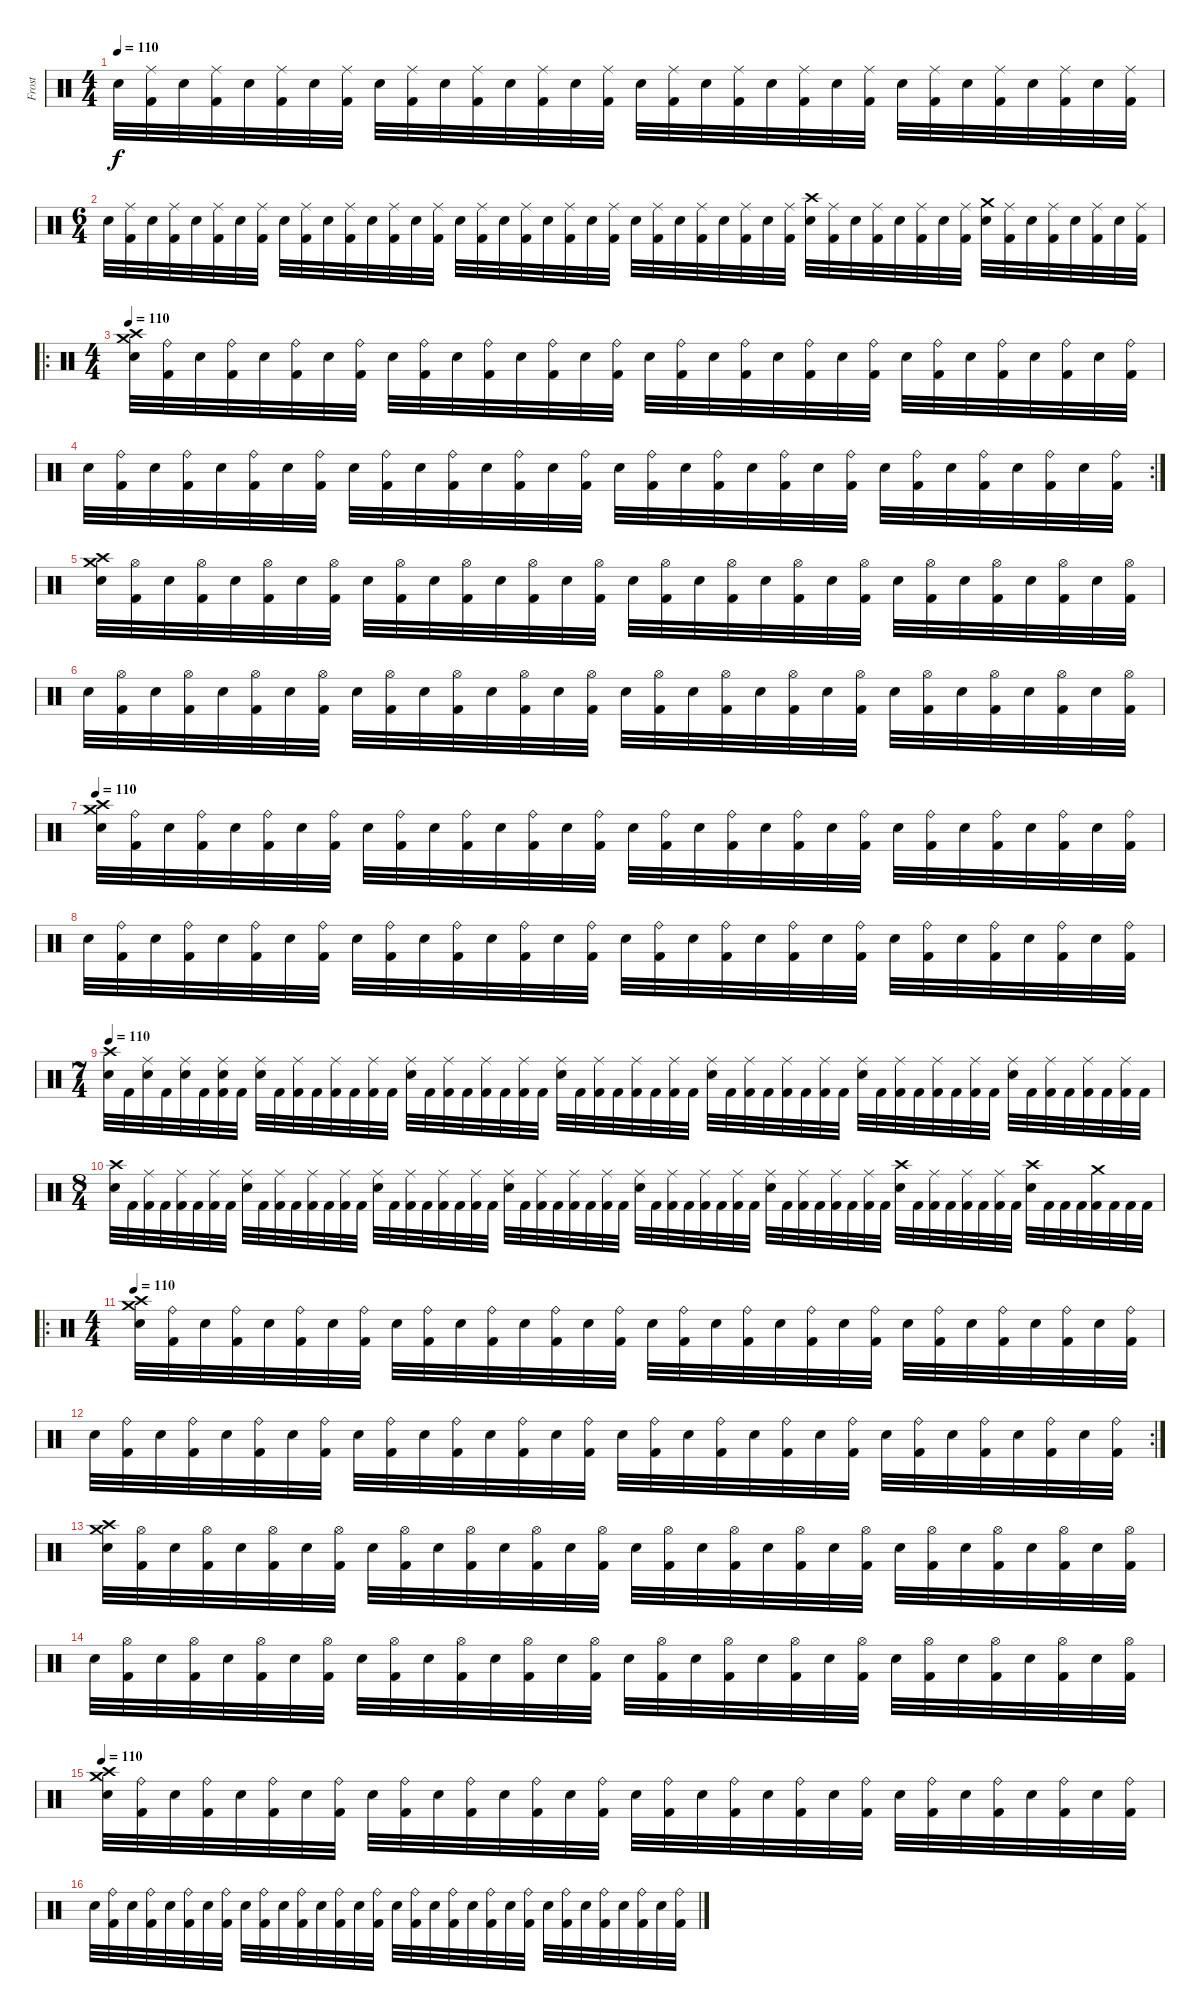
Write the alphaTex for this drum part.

\track ("Frost" "Frost") {instrument percussion}
\staff {score}
\articulation defaults
\ts (4 4)
\tempo 110
\clef neutral
\ks c "Snare (hit) 2".32{dy f}
("Ride (middle)" "Kick (hit) 2").32 "Snare (hit) 2".32 ("Ride (middle)" "Kick (hit) 2").32 "Snare (hit) 2".32 ("Ride (middle)" "Kick (hit) 2").32 "Snare (hit) 2".32 ("Ride (middle)" "Kick (hit) 2").32 "Snare (hit) 2".32 ("Ride (middle)" "Kick (hit) 2").32 "Snare (hit) 2".32 ("Ride (middle)" "Kick (hit) 2").32 "Snare (hit) 2".32 ("Ride (middle)" "Kick (hit) 2").32 "Snare (hit) 2".32 ("Ride (middle)" "Kick (hit) 2").32 "Snare (hit) 2".32 ("Ride (middle)" "Kick (hit) 2").32 "Snare (hit) 2".32 ("Ride (middle)" "Kick (hit) 2").32 "Snare (hit) 2".32 ("Ride (middle)" "Kick (hit) 2").32 "Snare (hit) 2".32 ("Ride (middle)" "Kick (hit) 2").32 "Snare (hit) 2".32 ("Ride (middle)" "Kick (hit) 2").32 "Snare (hit) 2".32 ("Ride (middle)" "Kick (hit) 2").32 "Snare (hit) 2".32 ("Ride (middle)" "Kick (hit) 2").32 "Snare (hit) 2".32 ("Ride (middle)" "Kick (hit) 2").32 |
\ts (6 4)
"Snare (hit) 2".32 ("Ride (middle)" "Kick (hit) 2").32 "Snare (hit) 2".32 ("Ride (middle)" "Kick (hit) 2").32 "Snare (hit) 2".32 ("Ride (middle)" "Kick (hit) 2").32 "Snare (hit) 2".32 ("Ride (middle)" "Kick (hit) 2").32 "Snare (hit) 2".32 ("Ride (middle)" "Kick (hit) 2").32 "Snare (hit) 2".32 ("Ride (middle)" "Kick (hit) 2").32 "Snare (hit) 2".32 ("Ride (middle)" "Kick (hit) 2").32 "Snare (hit) 2".32 ("Ride (middle)" "Kick (hit) 2").32 "Snare (hit) 2".32 ("Ride (middle)" "Kick (hit) 2").32 "Snare (hit) 2".32 ("Ride (middle)" "Kick (hit) 2").32 "Snare (hit) 2".32 ("Ride (middle)" "Kick (hit) 2").32 "Snare (hit) 2".32 ("Ride (middle)" "Kick (hit) 2").32 "Snare (hit) 2".32 ("Ride (middle)" "Kick (hit) 2").32 "Snare (hit) 2".32 ("Ride (middle)" "Kick (hit) 2").32 "Snare (hit) 2".32 ("Ride (middle)" "Kick (hit) 2").32 "Snare (hit) 2".32 ("Ride (middle)" "Kick (hit) 2").32 ("Crash high (hit)" "Snare (hit) 2").32 ("Ride (middle)" "Kick (hit) 2").32 "Snare (hit) 2".32 ("Ride (middle)" "Kick (hit) 2").32 "Snare (hit) 2".32 ("Ride (middle)" "Kick (hit) 2").32 "Snare (hit) 2".32 ("Ride (middle)" "Kick (hit) 2").32 ("Crash medium (hit)" "Snare (hit) 2").32 ("Ride (middle)" "Kick (hit) 2").32 "Snare (hit) 2".32 ("Ride (middle)" "Kick (hit) 2").32 "Snare (hit) 2".32 ("Ride (middle)" "Kick (hit) 2").32 "Snare (hit) 2".32 ("Ride (middle)" "Kick (hit) 2").32 |
\ro
\ts (4 4)
\tempo 110
("Crash high (hit)" "Crash medium (hit)" "Snare (hit) 2").32 ("Ride (bell)" "Kick (hit) 2").32 "Snare (hit) 2".32 ("Ride (bell)" "Kick (hit) 2").32 "Snare (hit) 2".32 ("Ride (bell)" "Kick (hit) 2").32 "Snare (hit) 2".32 ("Ride (bell)" "Kick (hit) 2").32 "Snare (hit) 2".32 ("Ride (bell)" "Kick (hit) 2").32 "Snare (hit) 2".32 ("Ride (bell)" "Kick (hit) 2").32 "Snare (hit) 2".32 ("Ride (bell)" "Kick (hit) 2").32 "Snare (hit) 2".32 ("Ride (bell)" "Kick (hit) 2").32 "Snare (hit) 2".32 ("Ride (bell)" "Kick (hit) 2").32 "Snare (hit) 2".32 ("Ride (bell)" "Kick (hit) 2").32 "Snare (hit) 2".32 ("Ride (bell)" "Kick (hit) 2").32 "Snare (hit) 2".32 ("Ride (bell)" "Kick (hit) 2").32 "Snare (hit) 2".32 ("Ride (bell)" "Kick (hit) 2").32 "Snare (hit) 2".32 ("Ride (bell)" "Kick (hit) 2").32 "Snare (hit) 2".32 ("Ride (bell)" "Kick (hit) 2").32 "Snare (hit) 2".32 ("Ride (bell)" "Kick (hit) 2").32 |
\rc 2 "Snare (hit) 2".32
("Ride (bell)" "Kick (hit) 2").32 "Snare (hit) 2".32 ("Ride (bell)" "Kick (hit) 2").32 "Snare (hit) 2".32 ("Ride (bell)" "Kick (hit) 2").32 "Snare (hit) 2".32 ("Ride (bell)" "Kick (hit) 2").32 "Snare (hit) 2".32 ("Ride (bell)" "Kick (hit) 2").32 "Snare (hit) 2".32 ("Ride (bell)" "Kick (hit) 2").32 "Snare (hit) 2".32 ("Ride (bell)" "Kick (hit) 2").32 "Snare (hit) 2".32 ("Ride (bell)" "Kick (hit) 2").32 "Snare (hit) 2".32 ("Ride (bell)" "Kick (hit) 2").32 "Snare (hit) 2".32 ("Ride (bell)" "Kick (hit) 2").32 "Snare (hit) 2".32 ("Ride (bell)" "Kick (hit) 2").32 "Snare (hit) 2".32 ("Ride (bell)" "Kick (hit) 2").32 "Snare (hit) 2".32 ("Ride (bell)" "Kick (hit) 2").32 "Snare (hit) 2".32 ("Ride (bell)" "Kick (hit) 2").32 "Snare (hit) 2".32 ("Ride (bell)" "Kick (hit) 2").32 "Snare (hit) 2".32 ("Ride (bell)" "Kick (hit) 2").32 |
("Crash high (hit)" "Crash medium (hit)" "Snare (hit) 2").32 ("Hi-Hat (open)" "Kick (hit) 2").32 "Snare (hit) 2".32 ("Hi-Hat (open)" "Kick (hit) 2").32 "Snare (hit) 2".32 ("Hi-Hat (open)" "Kick (hit) 2").32 "Snare (hit) 2".32 ("Hi-Hat (open)" "Kick (hit) 2").32 "Snare (hit) 2".32 ("Hi-Hat (open)" "Kick (hit) 2").32 "Snare (hit) 2".32 ("Hi-Hat (open)" "Kick (hit) 2").32 "Snare (hit) 2".32 ("Hi-Hat (open)" "Kick (hit) 2").32 "Snare (hit) 2".32 ("Hi-Hat (open)" "Kick (hit) 2").32 "Snare (hit) 2".32 ("Hi-Hat (open)" "Kick (hit) 2").32 "Snare (hit) 2".32 ("Hi-Hat (open)" "Kick (hit) 2").32 "Snare (hit) 2".32 ("Hi-Hat (open)" "Kick (hit) 2").32 "Snare (hit) 2".32 ("Hi-Hat (open)" "Kick (hit) 2").32 "Snare (hit) 2".32 ("Hi-Hat (open)" "Kick (hit) 2").32 "Snare (hit) 2".32 ("Hi-Hat (open)" "Kick (hit) 2").32 "Snare (hit) 2".32 ("Hi-Hat (open)" "Kick (hit) 2").32 "Snare (hit) 2".32 ("Hi-Hat (open)" "Kick (hit) 2").32 |
"Snare (hit) 2".32 ("Hi-Hat (open)" "Kick (hit) 2").32 "Snare (hit) 2".32 ("Hi-Hat (open)" "Kick (hit) 2").32 "Snare (hit) 2".32 ("Hi-Hat (open)" "Kick (hit) 2").32 "Snare (hit) 2".32 ("Hi-Hat (open)" "Kick (hit) 2").32 "Snare (hit) 2".32 ("Hi-Hat (open)" "Kick (hit) 2").32 "Snare (hit) 2".32 ("Hi-Hat (open)" "Kick (hit) 2").32 "Snare (hit) 2".32 ("Hi-Hat (open)" "Kick (hit) 2").32 "Snare (hit) 2".32 ("Hi-Hat (open)" "Kick (hit) 2").32 "Snare (hit) 2".32 ("Hi-Hat (open)" "Kick (hit) 2").32 "Snare (hit) 2".32 ("Hi-Hat (open)" "Kick (hit) 2").32 "Snare (hit) 2".32 ("Hi-Hat (open)" "Kick (hit) 2").32 "Snare (hit) 2".32 ("Hi-Hat (open)" "Kick (hit) 2").32 "Snare (hit) 2".32 ("Hi-Hat (open)" "Kick (hit) 2").32 "Snare (hit) 2".32 ("Hi-Hat (open)" "Kick (hit) 2").32 "Snare (hit) 2".32 ("Hi-Hat (open)" "Kick (hit) 2").32 "Snare (hit) 2".32 ("Hi-Hat (open)" "Kick (hit) 2").32 |
\tempo 110
("Crash high (hit)" "Crash medium (hit)" "Snare (hit) 2").32 ("Ride (bell)" "Kick (hit) 2").32 "Snare (hit) 2".32 ("Ride (bell)" "Kick (hit) 2").32 "Snare (hit) 2".32 ("Ride (bell)" "Kick (hit) 2").32 "Snare (hit) 2".32 ("Ride (bell)" "Kick (hit) 2").32 "Snare (hit) 2".32 ("Ride (bell)" "Kick (hit) 2").32 "Snare (hit) 2".32 ("Ride (bell)" "Kick (hit) 2").32 "Snare (hit) 2".32 ("Ride (bell)" "Kick (hit) 2").32 "Snare (hit) 2".32 ("Ride (bell)" "Kick (hit) 2").32 "Snare (hit) 2".32 ("Ride (bell)" "Kick (hit) 2").32 "Snare (hit) 2".32 ("Ride (bell)" "Kick (hit) 2").32 "Snare (hit) 2".32 ("Ride (bell)" "Kick (hit) 2").32 "Snare (hit) 2".32 ("Ride (bell)" "Kick (hit) 2").32 "Snare (hit) 2".32 ("Ride (bell)" "Kick (hit) 2").32 "Snare (hit) 2".32 ("Ride (bell)" "Kick (hit) 2").32 "Snare (hit) 2".32 ("Ride (bell)" "Kick (hit) 2").32 "Snare (hit) 2".32 ("Ride (bell)" "Kick (hit) 2").32 |
"Snare (hit) 2".32 ("Ride (bell)" "Kick (hit) 2").32 "Snare (hit) 2".32 ("Ride (bell)" "Kick (hit) 2").32 "Snare (hit) 2".32 ("Ride (bell)" "Kick (hit) 2").32 "Snare (hit) 2".32 ("Ride (bell)" "Kick (hit) 2").32 "Snare (hit) 2".32 ("Ride (bell)" "Kick (hit) 2").32 "Snare (hit) 2".32 ("Ride (bell)" "Kick (hit) 2").32 "Snare (hit) 2".32 ("Ride (bell)" "Kick (hit) 2").32 "Snare (hit) 2".32 ("Ride (bell)" "Kick (hit) 2").32 "Snare (hit) 2".32 ("Ride (bell)" "Kick (hit) 2").32 "Snare (hit) 2".32 ("Ride (bell)" "Kick (hit) 2").32 "Snare (hit) 2".32 ("Ride (bell)" "Kick (hit) 2").32 "Snare (hit) 2".32 ("Ride (bell)" "Kick (hit) 2").32 "Snare (hit) 2".32 ("Ride (bell)" "Kick (hit) 2").32 "Snare (hit) 2".32 ("Ride (bell)" "Kick (hit) 2").32 "Snare (hit) 2".32 ("Ride (bell)" "Kick (hit) 2").32 "Snare (hit) 2".32 ("Ride (bell)" "Kick (hit) 2").32 |
\ts (7 4)
\tempo 110
("Crash high (hit)" "Snare (hit) 2").32 "Kick (hit) 2".32 ("Ride (middle)" "Snare (hit) 2").32 "Kick (hit) 2".32 ("Ride (middle)" "Snare (hit) 2").32 "Kick (hit) 2".32 ("Ride (middle)" "Snare (hit) 2" "Kick (hit) 2").32 "Kick (hit) 2".32 ("Ride (middle)" "Snare (hit) 2").32 "Kick (hit) 2".32 ("Ride (middle)" "Kick (hit) 2").32 "Kick (hit) 2".32 ("Ride (middle)" "Kick (hit) 2").32 "Kick (hit) 2".32 ("Ride (middle)" "Kick (hit) 2").32 "Kick (hit) 2".32 ("Ride (middle)" "Snare (hit) 2").32 "Kick (hit) 2".32 ("Ride (middle)" "Kick (hit) 2").32 "Kick (hit) 2".32 ("Ride (middle)" "Kick (hit) 2").32 "Kick (hit) 2".32 ("Ride (middle)" "Kick (hit) 2").32 "Kick (hit) 2".32 ("Ride (middle)" "Snare (hit) 2").32 "Kick (hit) 2".32 ("Ride (middle)" "Kick (hit) 2").32 "Kick (hit) 2".32 ("Ride (middle)" "Kick (hit) 2").32 "Kick (hit) 2".32 ("Ride (middle)" "Kick (hit) 2").32 "Kick (hit) 2".32 ("Ride (middle)" "Snare (hit) 2").32 "Kick (hit) 2".32 ("Ride (middle)" "Kick (hit) 2").32 "Kick (hit) 2".32 ("Ride (middle)" "Kick (hit) 2").32 "Kick (hit) 2".32 ("Ride (middle)" "Kick (hit) 2").32 "Kick (hit) 2".32 ("Ride (middle)" "Snare (hit) 2").32 "Kick (hit) 2".32 ("Ride (middle)" "Kick (hit) 2").32 "Kick (hit) 2".32 ("Ride (middle)" "Kick (hit) 2").32 "Kick (hit) 2".32 ("Ride (middle)" "Kick (hit) 2").32 "Kick (hit) 2".32 ("Ride (middle)" "Snare (hit) 2").32 "Kick (hit) 2".32 ("Ride (middle)" "Kick (hit) 2").32 "Kick (hit) 2".32 ("Ride (middle)" "Kick (hit) 2").32 "Kick (hit) 2".32 ("Ride (middle)" "Kick (hit) 2").32 "Kick (hit) 2".32 |
\ts (8 4)
("Crash high (hit)" "Snare (hit) 2").32 "Kick (hit) 2".32 ("Ride (middle)" "Kick (hit) 2").32 "Kick (hit) 2".32 ("Ride (middle)" "Kick (hit) 2").32 "Kick (hit) 2".32 ("Ride (middle)" "Kick (hit) 2").32 "Kick (hit) 2".32 ("Ride (middle)" "Snare (hit) 2").32 "Kick (hit) 2".32 ("Ride (middle)" "Kick (hit) 2").32 "Kick (hit) 2".32 ("Ride (middle)" "Kick (hit) 2").32 "Kick (hit) 2".32 ("Ride (middle)" "Kick (hit) 2").32 "Kick (hit) 2".32 ("Ride (middle)" "Snare (hit) 2").32 "Kick (hit) 2".32 ("Ride (middle)" "Kick (hit) 2").32 "Kick (hit) 2".32 ("Ride (middle)" "Kick (hit) 2").32 "Kick (hit) 2".32 ("Ride (middle)" "Kick (hit) 2").32 "Kick (hit) 2".32 ("Ride (middle)" "Snare (hit) 2").32 "Kick (hit) 2".32 ("Ride (middle)" "Kick (hit) 2").32 "Kick (hit) 2".32 ("Ride (middle)" "Kick (hit) 2").32 "Kick (hit) 2".32 ("Ride (middle)" "Kick (hit) 2").32 "Kick (hit) 2".32 ("Ride (middle)" "Snare (hit) 2").32 "Kick (hit) 2".32 ("Ride (middle)" "Kick (hit) 2").32 "Kick (hit) 2".32 ("Ride (middle)" "Kick (hit) 2").32 "Kick (hit) 2".32 ("Ride (middle)" "Kick (hit) 2").32 "Kick (hit) 2".32 ("Ride (middle)" "Snare (hit) 2").32 "Kick (hit) 2".32 ("Ride (middle)" "Kick (hit) 2").32 "Kick (hit) 2".32 ("Ride (middle)" "Kick (hit) 2").32 "Kick (hit) 2".32 ("Ride (middle)" "Kick (hit) 2").32 "Kick (hit) 2".32 ("Crash high (hit)" "Snare (hit) 2").32 "Kick (hit) 2".32 ("Ride (middle)" "Kick (hit) 2").32 "Kick (hit) 2".32 ("Ride (middle)" "Kick (hit) 2").32 "Kick (hit) 2".32 ("Ride (middle)" "Kick (hit) 2").32 "Kick (hit) 2".32 ("Crash high (hit)" "Snare (hit) 2").32 "Kick (hit) 2".32 "Kick (hit) 2".32 "Kick (hit) 2".32 ("Crash medium (hit)" "Kick (hit) 2").32 "Kick (hit) 2".32 "Kick (hit) 2".32 "Kick (hit) 2".32 |
\ro
\ts (4 4)
\tempo 110
("Crash high (hit)" "Crash medium (hit)" "Snare (hit) 2").32 ("Ride (bell)" "Kick (hit) 2").32 "Snare (hit) 2".32 ("Ride (bell)" "Kick (hit) 2").32 "Snare (hit) 2".32 ("Ride (bell)" "Kick (hit) 2").32 "Snare (hit) 2".32 ("Ride (bell)" "Kick (hit) 2").32 "Snare (hit) 2".32 ("Ride (bell)" "Kick (hit) 2").32 "Snare (hit) 2".32 ("Ride (bell)" "Kick (hit) 2").32 "Snare (hit) 2".32 ("Ride (bell)" "Kick (hit) 2").32 "Snare (hit) 2".32 ("Ride (bell)" "Kick (hit) 2").32 "Snare (hit) 2".32 ("Ride (bell)" "Kick (hit) 2").32 "Snare (hit) 2".32 ("Ride (bell)" "Kick (hit) 2").32 "Snare (hit) 2".32 ("Ride (bell)" "Kick (hit) 2").32 "Snare (hit) 2".32 ("Ride (bell)" "Kick (hit) 2").32 "Snare (hit) 2".32 ("Ride (bell)" "Kick (hit) 2").32 "Snare (hit) 2".32 ("Ride (bell)" "Kick (hit) 2").32 "Snare (hit) 2".32 ("Ride (bell)" "Kick (hit) 2").32 "Snare (hit) 2".32 ("Ride (bell)" "Kick (hit) 2").32 |
\rc 2 "Snare (hit) 2".32
("Ride (bell)" "Kick (hit) 2").32 "Snare (hit) 2".32 ("Ride (bell)" "Kick (hit) 2").32 "Snare (hit) 2".32 ("Ride (bell)" "Kick (hit) 2").32 "Snare (hit) 2".32 ("Ride (bell)" "Kick (hit) 2").32 "Snare (hit) 2".32 ("Ride (bell)" "Kick (hit) 2").32 "Snare (hit) 2".32 ("Ride (bell)" "Kick (hit) 2").32 "Snare (hit) 2".32 ("Ride (bell)" "Kick (hit) 2").32 "Snare (hit) 2".32 ("Ride (bell)" "Kick (hit) 2").32 "Snare (hit) 2".32 ("Ride (bell)" "Kick (hit) 2").32 "Snare (hit) 2".32 ("Ride (bell)" "Kick (hit) 2").32 "Snare (hit) 2".32 ("Ride (bell)" "Kick (hit) 2").32 "Snare (hit) 2".32 ("Ride (bell)" "Kick (hit) 2").32 "Snare (hit) 2".32 ("Ride (bell)" "Kick (hit) 2").32 "Snare (hit) 2".32 ("Ride (bell)" "Kick (hit) 2").32 "Snare (hit) 2".32 ("Ride (bell)" "Kick (hit) 2").32 "Snare (hit) 2".32 ("Ride (bell)" "Kick (hit) 2").32 |
("Crash high (hit)" "Crash medium (hit)" "Snare (hit) 2").32 ("Hi-Hat (open)" "Kick (hit) 2").32 "Snare (hit) 2".32 ("Hi-Hat (open)" "Kick (hit) 2").32 "Snare (hit) 2".32 ("Hi-Hat (open)" "Kick (hit) 2").32 "Snare (hit) 2".32 ("Hi-Hat (open)" "Kick (hit) 2").32 "Snare (hit) 2".32 ("Hi-Hat (open)" "Kick (hit) 2").32 "Snare (hit) 2".32 ("Hi-Hat (open)" "Kick (hit) 2").32 "Snare (hit) 2".32 ("Hi-Hat (open)" "Kick (hit) 2").32 "Snare (hit) 2".32 ("Hi-Hat (open)" "Kick (hit) 2").32 "Snare (hit) 2".32 ("Hi-Hat (open)" "Kick (hit) 2").32 "Snare (hit) 2".32 ("Hi-Hat (open)" "Kick (hit) 2").32 "Snare (hit) 2".32 ("Hi-Hat (open)" "Kick (hit) 2").32 "Snare (hit) 2".32 ("Hi-Hat (open)" "Kick (hit) 2").32 "Snare (hit) 2".32 ("Hi-Hat (open)" "Kick (hit) 2").32 "Snare (hit) 2".32 ("Hi-Hat (open)" "Kick (hit) 2").32 "Snare (hit) 2".32 ("Hi-Hat (open)" "Kick (hit) 2").32 "Snare (hit) 2".32 ("Hi-Hat (open)" "Kick (hit) 2").32 |
"Snare (hit) 2".32 ("Hi-Hat (open)" "Kick (hit) 2").32 "Snare (hit) 2".32 ("Hi-Hat (open)" "Kick (hit) 2").32 "Snare (hit) 2".32 ("Hi-Hat (open)" "Kick (hit) 2").32 "Snare (hit) 2".32 ("Hi-Hat (open)" "Kick (hit) 2").32 "Snare (hit) 2".32 ("Hi-Hat (open)" "Kick (hit) 2").32 "Snare (hit) 2".32 ("Hi-Hat (open)" "Kick (hit) 2").32 "Snare (hit) 2".32 ("Hi-Hat (open)" "Kick (hit) 2").32 "Snare (hit) 2".32 ("Hi-Hat (open)" "Kick (hit) 2").32 "Snare (hit) 2".32 ("Hi-Hat (open)" "Kick (hit) 2").32 "Snare (hit) 2".32 ("Hi-Hat (open)" "Kick (hit) 2").32 "Snare (hit) 2".32 ("Hi-Hat (open)" "Kick (hit) 2").32 "Snare (hit) 2".32 ("Hi-Hat (open)" "Kick (hit) 2").32 "Snare (hit) 2".32 ("Hi-Hat (open)" "Kick (hit) 2").32 "Snare (hit) 2".32 ("Hi-Hat (open)" "Kick (hit) 2").32 "Snare (hit) 2".32 ("Hi-Hat (open)" "Kick (hit) 2").32 "Snare (hit) 2".32 ("Hi-Hat (open)" "Kick (hit) 2").32 |
\tempo 110
("Crash high (hit)" "Crash medium (hit)" "Snare (hit) 2").32 ("Ride (bell)" "Kick (hit) 2").32 "Snare (hit) 2".32 ("Ride (bell)" "Kick (hit) 2").32 "Snare (hit) 2".32 ("Ride (bell)" "Kick (hit) 2").32 "Snare (hit) 2".32 ("Ride (bell)" "Kick (hit) 2").32 "Snare (hit) 2".32 ("Ride (bell)" "Kick (hit) 2").32 "Snare (hit) 2".32 ("Ride (bell)" "Kick (hit) 2").32 "Snare (hit) 2".32 ("Ride (bell)" "Kick (hit) 2").32 "Snare (hit) 2".32 ("Ride (bell)" "Kick (hit) 2").32 "Snare (hit) 2".32 ("Ride (bell)" "Kick (hit) 2").32 "Snare (hit) 2".32 ("Ride (bell)" "Kick (hit) 2").32 "Snare (hit) 2".32 ("Ride (bell)" "Kick (hit) 2").32 "Snare (hit) 2".32 ("Ride (bell)" "Kick (hit) 2").32 "Snare (hit) 2".32 ("Ride (bell)" "Kick (hit) 2").32 "Snare (hit) 2".32 ("Ride (bell)" "Kick (hit) 2").32 "Snare (hit) 2".32 ("Ride (bell)" "Kick (hit) 2").32 "Snare (hit) 2".32 ("Ride (bell)" "Kick (hit) 2").32 |
"Snare (hit) 2".32 ("Ride (bell)" "Kick (hit) 2").32 "Snare (hit) 2".32 ("Ride (bell)" "Kick (hit) 2").32 "Snare (hit) 2".32 ("Ride (bell)" "Kick (hit) 2").32 "Snare (hit) 2".32 ("Ride (bell)" "Kick (hit) 2").32 "Snare (hit) 2".32 ("Ride (bell)" "Kick (hit) 2").32 "Snare (hit) 2".32 ("Ride (bell)" "Kick (hit) 2").32 "Snare (hit) 2".32 ("Ride (bell)" "Kick (hit) 2").32 "Snare (hit) 2".32 ("Ride (bell)" "Kick (hit) 2").32 "Snare (hit) 2".32 ("Ride (bell)" "Kick (hit) 2").32 "Snare (hit) 2".32 ("Ride (bell)" "Kick (hit) 2").32 "Snare (hit) 2".32 ("Ride (bell)" "Kick (hit) 2").32 "Snare (hit) 2".32 ("Ride (bell)" "Kick (hit) 2").32 "Snare (hit) 2".32 ("Ride (bell)" "Kick (hit) 2").32 "Snare (hit) 2".32 ("Ride (bell)" "Kick (hit) 2").32 "Snare (hit) 2".32 ("Ride (bell)" "Kick (hit) 2").32 "Snare (hit) 2".32 ("Ride (bell)" "Kick (hit) 2").32
